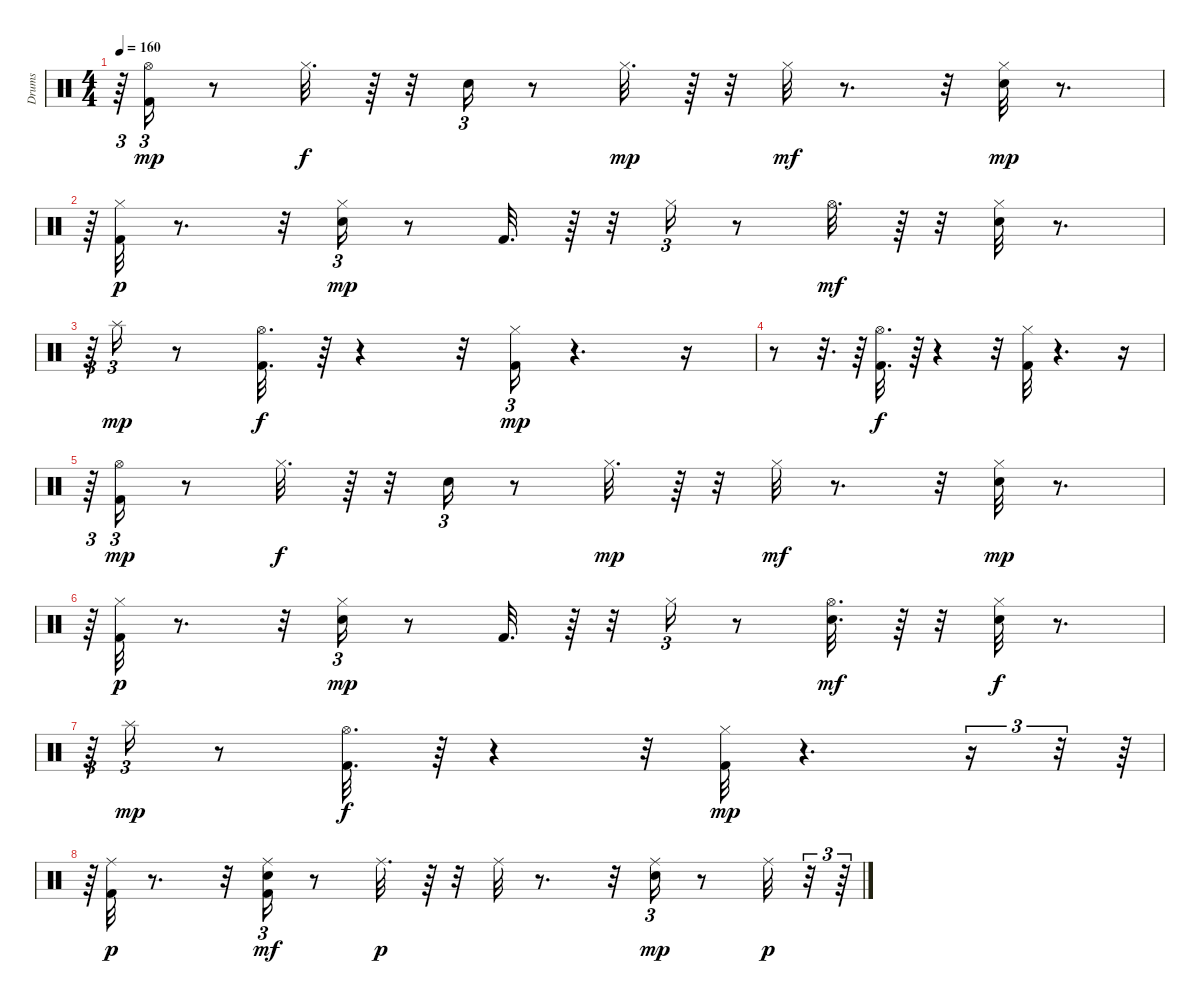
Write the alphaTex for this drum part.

\track ("Drums" "Drums") {instrument percussion}
\staff {score}
\articulation defaults
\ts (4 4)
\tempo 160
\clef neutral
\ks c
r.64{tu (3 2) dy f} ("Kick (hit) 2" "Hi-Hat (open)").16{tu (3 2) dy mp} r.8 "Hi-Hat (closed)".32{d dy f} r.64 r.32 "Electric Snare (hit)".16{tu (3 2)} r.8 "Hi-Hat (closed)".32{d dy mp} r.64 r.32 "Hi-Hat (closed)".32{dy mf} r.8{d} r.32 ("Hi-Hat (closed)" "Electric Snare (hit)").32{dy mp} r.8{d} |
r.64{tu (3 2)} ("Kick (hit) 2" "Hi-Hat (closed)").32{dy p} r.8{d} r.32 ("Hi-Hat (closed)" "Electric Snare (hit)").16{tu (3 2) dy mp} r.8 "Kick (hit) 2".32{d} r.64 r.32 "Hi-Hat (closed)".16{tu (3 2)} r.8 "Hi-Hat (open)".32{d dy mf} r.64 r.32 ("Hi-Hat (closed)" "Electric Snare (hit)").32 r.8{d} |
r.64{tu (3 2)} "Splash (hit)".16{tu (3 2) dy mp} r.8 ("Kick (hit) 2" "Hi-Hat (open)").32{d dy f} r.64 r.4 r.32 ("Kick (hit) 2" "Hi-Hat (closed)").16{tu (3 2) dy mp} r.4{d} r.16 |
r.8 r.32{d} r.64 ("Kick (hit) 2" "Hi-Hat (open)").32{d dy f} r.64 r.4 r.32 ("Kick (hit) 2" "Hi-Hat (closed)").32 r.4{d} r.16 |
r.64{tu (3 2)} ("Kick (hit) 2" "Hi-Hat (open)").16{tu (3 2) dy mp} r.8 "Hi-Hat (closed)".32{d dy f} r.64 r.32 "Electric Snare (hit)".16{tu (3 2)} r.8 "Hi-Hat (closed)".32{d dy mp} r.64 r.32 "Hi-Hat (closed)".32{dy mf} r.8{d} r.32 ("Hi-Hat (closed)" "Electric Snare (hit)").32{dy mp} r.8{d} |
r.64{tu (3 2)} ("Kick (hit) 2" "Hi-Hat (closed)").32{dy p} r.8{d} r.32 ("Hi-Hat (closed)" "Electric Snare (hit)").16{tu (3 2) dy mp} r.8 "Kick (hit) 2".32{d} r.64 r.32 "Hi-Hat (closed)".16{tu (3 2)} r.8 ("Hi-Hat (open)" "Electric Snare (hit)").32{d dy mf} r.64 r.32 ("Hi-Hat (closed)" "Electric Snare (hit)").32{dy f} r.8{d} |
r.64{tu (3 2)} "Splash (hit)".16{tu (3 2) dy mp} r.8 ("Kick (hit) 2" "Hi-Hat (open)").32{d dy f} r.64 r.4 r.32 ("Kick (hit) 2" "Hi-Hat (closed)").32{dy mp} r.4{d} r.16{tu (3 2)} r.32{tu (3 2)} r.64{tu (3 2)} |
r.64{tu (3 2)} ("Kick (hit) 2" "Ride (middle)").32{dy p} r.8{d} r.32 ("Kick (hit) 2" "Ride (middle)" "Electric Snare (hit)").16{tu (3 2) dy mf} r.8 "Ride (middle)".32{d dy p} r.64 r.32 "Ride (middle)".32 r.8{d} r.32 ("Ride (middle)" "Electric Snare (hit)").16{tu (3 2) dy mp} r.8 "Ride (middle)".32{dy p} r.32{tu (3 2)} r.64{tu (3 2)}
